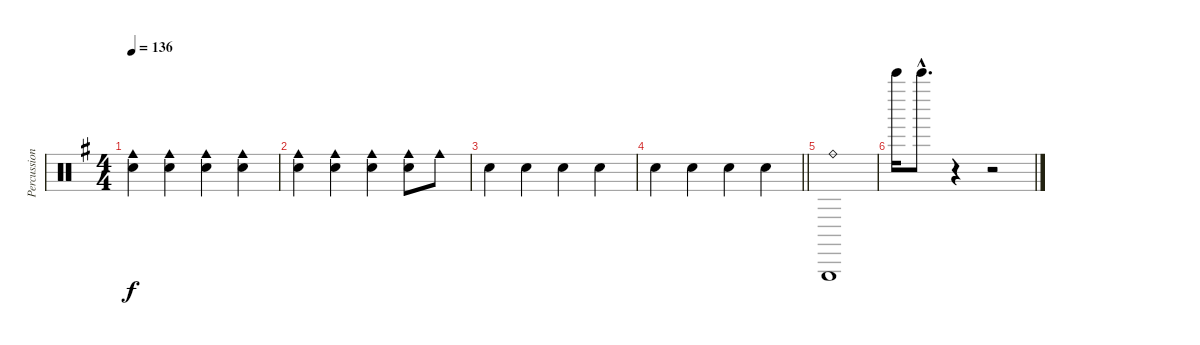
\track ("Percussions" "Percussion") {instrument percussion}
\staff {score}
\articulation defaults
\ts (4 4)
\tempo 136
\clef neutral
\ks g
("Hand Clap (hit)" "Cowbell medium (hit)").4{dy f} ("Hand Clap (hit)" "Cowbell medium (hit)").4 ("Hand Clap (hit)" "Cowbell medium (hit)").4 ("Hand Clap (hit)" "Cowbell medium (hit)").4 |
("Hand Clap (hit)" "Cowbell medium (hit)").4 ("Hand Clap (hit)" "Cowbell medium (hit)").4 ("Hand Clap (hit)" "Cowbell medium (hit)").4 ("Hand Clap (hit)" "Cowbell medium (hit)").8 "Cowbell medium (hit)".8 |
"Hand Clap (hit)".4 "Hand Clap (hit)".4 "Hand Clap (hit)".4 "Hand Clap (hit)".4 |
\barLineRight lightlight "Hand Clap (hit)".4 "Hand Clap (hit)".4 "Hand Clap (hit)".4 "Hand Clap (hit)".4
|
("Triangle (hit)" "Ride (bell)").1 |
"Bell Tree (hit)".16 "Bell Tree (hit)"{hac}.8{d} r.4 r.2
